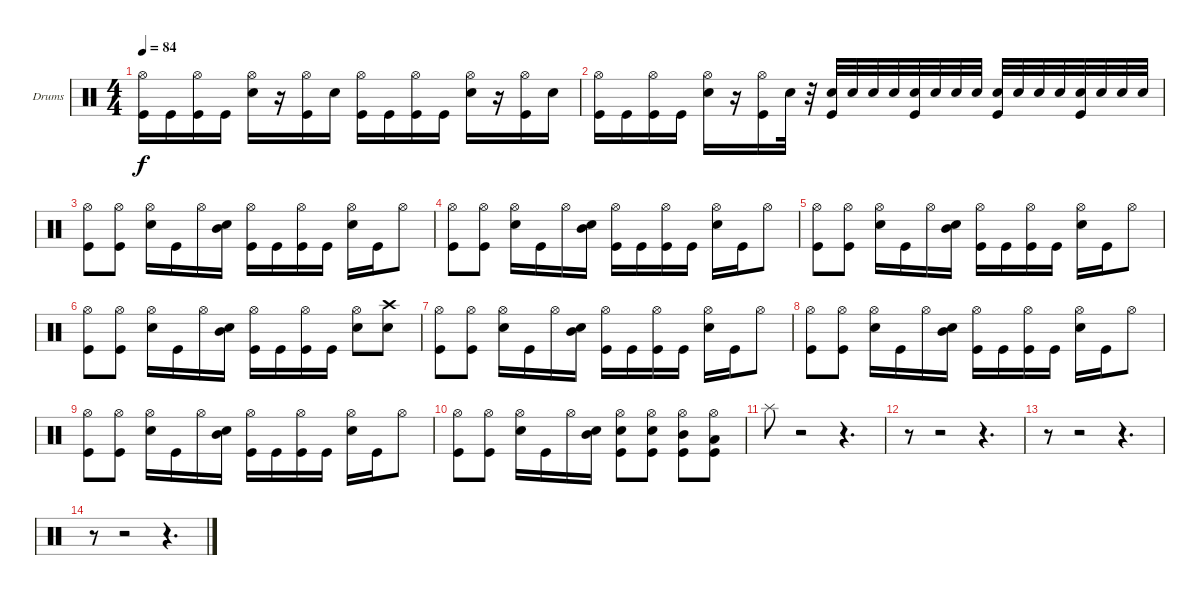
\bracketExtendMode groupsimilarinstruments
\firstSystemTrackNameOrientation horizontal
\otherSystemsTrackNameOrientation horizontal
\track ("Dave Grohl" "Drums") {instrument percussion}
\staff {score}
\articulation defaults
\ts (4 4)
\tempo 84
\clef neutral
\ks c
("Hi-Hat (open)" "Kick (hit)").16{dy f} "Kick (hit)".16 ("Hi-Hat (open)" "Kick (hit)").16 "Kick (hit)".16 ("Hi-Hat (open)" "Snare (hit) 2").16 r.16 ("Hi-Hat (open)" "Kick (hit)").16 "Snare (hit) 2".16 ("Hi-Hat (open)" "Kick (hit)").16 "Kick (hit)".16 ("Hi-Hat (open)" "Kick (hit)").16 "Kick (hit)".16 ("Hi-Hat (open)" "Snare (hit) 2").16 r.16 ("Hi-Hat (open)" "Kick (hit)").16 "Snare (hit) 2".16 |
("Hi-Hat (open)" "Kick (hit)").16 "Kick (hit)".16 ("Hi-Hat (open)" "Kick (hit)").16 "Kick (hit)".16 ("Hi-Hat (open)" "Snare (hit) 2").16 r.16 ("Hi-Hat (open)" "Kick (hit)").16 "Snare (hit) 2".32 r.32 ("Kick (hit)" "Snare (hit) 2").32 "Snare (hit) 2".32 "Snare (hit) 2".32 "Snare (hit) 2".32 ("Kick (hit)" "Snare (hit) 2").32 "Snare (hit) 2".32 "Snare (hit) 2".32 "Snare (hit) 2".32 ("Kick (hit)" "Snare (hit) 2").32 "Snare (hit) 2".32 "Snare (hit) 2".32 "Snare (hit) 2".32 ("Kick (hit)" "Snare (hit) 2").32 "Snare (hit) 2".32 "Snare (hit) 2".32 "Snare (hit) 2".32 |
("Hi-Hat (open)" "Kick (hit)").8 ("Hi-Hat (open)" "Kick (hit)").8 ("Hi-Hat (open)" "Snare (hit) 2").16 "Kick (hit)".16 "Hi-Hat (open)".16 ("Snare (hit) 2" "Mid Tom (hit)").16 ("Hi-Hat (open)" "Kick (hit)").16 "Kick (hit)".16 ("Hi-Hat (open)" "Kick (hit)").16 "Kick (hit)".16 ("Hi-Hat (open)" "Snare (hit) 2").16 "Kick (hit)".16 "Hi-Hat (open)".8 |
("Hi-Hat (open)" "Kick (hit)").8 ("Hi-Hat (open)" "Kick (hit)").8 ("Hi-Hat (open)" "Snare (hit) 2").16 "Kick (hit)".16 "Hi-Hat (open)".16 ("Snare (hit) 2" "Mid Tom (hit)").16 ("Hi-Hat (open)" "Kick (hit)").16 "Kick (hit)".16 ("Hi-Hat (open)" "Kick (hit)").16 "Kick (hit)".16 ("Hi-Hat (open)" "Snare (hit) 2").16 "Kick (hit)".16 "Hi-Hat (open)".8 |
("Hi-Hat (open)" "Kick (hit)").8 ("Hi-Hat (open)" "Kick (hit)").8 ("Hi-Hat (open)" "Snare (hit) 2").16 "Kick (hit)".16 "Hi-Hat (open)".16 ("Snare (hit) 2" "Mid Tom (hit)").16 ("Hi-Hat (open)" "Kick (hit)").16 "Kick (hit)".16 ("Hi-Hat (open)" "Kick (hit)").16 "Kick (hit)".16 ("Hi-Hat (open)" "Snare (hit) 2").16 "Kick (hit)".16 "Hi-Hat (open)".8 |
("Hi-Hat (open)" "Kick (hit)").8 ("Hi-Hat (open)" "Kick (hit)").8 ("Hi-Hat (open)" "Snare (hit) 2").16 "Kick (hit)".16 "Hi-Hat (open)".16 ("Snare (hit) 2" "Mid Tom (hit)").16 ("Hi-Hat (open)" "Kick (hit)").16 "Kick (hit)".16 ("Hi-Hat (open)" "Kick (hit)").16 "Kick (hit)".16 ("Hi-Hat (open)" "Snare (hit) 2").8 ("Crash high (hit)" "Snare (hit) 2").8 |
("Hi-Hat (open)" "Kick (hit)").8 ("Hi-Hat (open)" "Kick (hit)").8 ("Hi-Hat (open)" "Snare (hit) 2").16 "Kick (hit)".16 "Hi-Hat (open)".16 ("Snare (hit) 2" "Mid Tom (hit)").16 ("Hi-Hat (open)" "Kick (hit)").16 "Kick (hit)".16 ("Hi-Hat (open)" "Kick (hit)").16 "Kick (hit)".16 ("Hi-Hat (open)" "Snare (hit) 2").16 "Kick (hit)".16 "Hi-Hat (open)".8 |
("Hi-Hat (open)" "Kick (hit)").8 ("Hi-Hat (open)" "Kick (hit)").8 ("Hi-Hat (open)" "Snare (hit) 2").16 "Kick (hit)".16 "Hi-Hat (open)".16 ("Snare (hit) 2" "Mid Tom (hit)").16 ("Hi-Hat (open)" "Kick (hit)").16 "Kick (hit)".16 ("Hi-Hat (open)" "Kick (hit)").16 "Kick (hit)".16 ("Hi-Hat (open)" "Snare (hit) 2").16 "Kick (hit)".16 "Hi-Hat (open)".8 |
("Hi-Hat (open)" "Kick (hit)").8 ("Hi-Hat (open)" "Kick (hit)").8 ("Hi-Hat (open)" "Snare (hit) 2").16 "Kick (hit)".16 "Hi-Hat (open)".16 ("Snare (hit) 2" "Mid Tom (hit)").16 ("Hi-Hat (open)" "Kick (hit)").16 "Kick (hit)".16 ("Hi-Hat (open)" "Kick (hit)").16 "Kick (hit)".16 ("Hi-Hat (open)" "Snare (hit) 2").16 "Kick (hit)".16 "Hi-Hat (open)".8 |
("Hi-Hat (open)" "Kick (hit)").8 ("Hi-Hat (open)" "Kick (hit)").8 ("Hi-Hat (open)" "Snare (hit) 2").16 "Kick (hit)".16 "Hi-Hat (open)".16 ("Snare (hit) 2" "Mid Tom (hit)").16 ("Hi-Hat (open)" "Kick (hit)" "Snare (hit) 2").8 ("Hi-Hat (open)" "Kick (hit)" "Snare (hit) 2").8 ("Hi-Hat (open)" "Kick (hit)" "Mid Tom (hit)").8 ("Hi-Hat (open)" "Kick (hit)" "Low Tom (hit)").8 |
"Splash (hit)".8 r.2 r.4{d} |
r.8 r.2 r.4{d} |
r.8 r.2 r.4{d} |
r.8 r.2 r.4{d}
